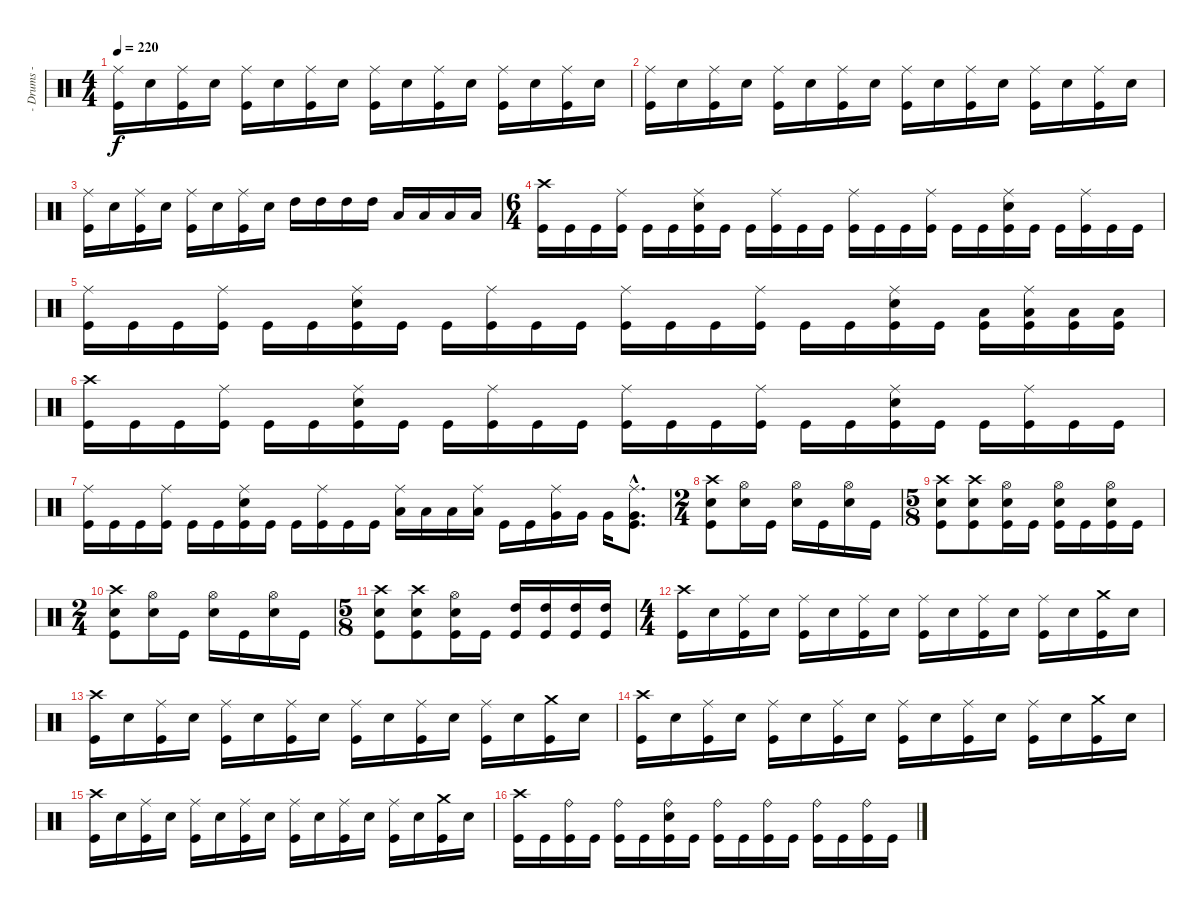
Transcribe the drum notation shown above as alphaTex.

\track ("- Drums -" "- Drums -") {instrument percussion}
\staff {score}
\articulation defaults
\ts (4 4)
\tempo 220
\clef neutral
\ks c
("Ride (middle)" "Kick (hit)").16{dy f} "Electric Snare (hit)".16 ("Ride (middle)" "Kick (hit)").16 "Electric Snare (hit)".16 ("Ride (middle)" "Kick (hit)").16 "Electric Snare (hit)".16 ("Ride (middle)" "Kick (hit)").16 "Electric Snare (hit)".16 ("Ride (middle)" "Kick (hit)").16 "Electric Snare (hit)".16 ("Ride (middle)" "Kick (hit)").16 "Electric Snare (hit)".16 ("Ride (middle)" "Kick (hit)").16 "Electric Snare (hit)".16 ("Ride (middle)" "Kick (hit)").16 "Electric Snare (hit)".16 |
("Ride (middle)" "Kick (hit)").16 "Electric Snare (hit)".16 ("Ride (middle)" "Kick (hit)").16 "Electric Snare (hit)".16 ("Ride (middle)" "Kick (hit)").16 "Electric Snare (hit)".16 ("Ride (middle)" "Kick (hit)").16 "Electric Snare (hit)".16 ("Ride (middle)" "Kick (hit)").16 "Electric Snare (hit)".16 ("Ride (middle)" "Kick (hit)").16 "Electric Snare (hit)".16 ("Ride (middle)" "Kick (hit)").16 "Electric Snare (hit)".16 ("Ride (middle)" "Kick (hit)").16 "Electric Snare (hit)".16 |
("Ride (middle)" "Kick (hit)").16 "Electric Snare (hit)".16 ("Ride (middle)" "Kick (hit)").16 "Electric Snare (hit)".16 ("Ride (middle)" "Kick (hit)").16 "Electric Snare (hit)".16 ("Ride (middle)" "Kick (hit)").16 "Electric Snare (hit)".16 "High Tom (hit)".16 "High Tom (hit)".16 "High Tom (hit)".16 "High Tom (hit)".16 "Low Tom (hit)".16 "Low Tom (hit)".16 "Low Tom (hit)".16 "Low Tom (hit)".16 |
\ts (6 4)
("Crash high (hit)" "Kick (hit)").16 "Kick (hit)".16 "Kick (hit)".16 ("Ride (middle)" "Kick (hit)").16 "Kick (hit)".16 "Kick (hit)".16 ("Ride (middle)" "Electric Snare (hit)" "Kick (hit)").16 "Kick (hit)".16 "Kick (hit)".16 ("Ride (middle)" "Kick (hit)").16 "Kick (hit)".16 "Kick (hit)".16 ("Ride (middle)" "Kick (hit)").16 "Kick (hit)".16 "Kick (hit)".16 ("Ride (middle)" "Kick (hit)").16 "Kick (hit)".16 "Kick (hit)".16 ("Ride (middle)" "Electric Snare (hit)" "Kick (hit)").16 "Kick (hit)".16 "Kick (hit)".16 ("Ride (middle)" "Kick (hit)").16 "Kick (hit)".16 "Kick (hit)".16 |
("Ride (middle)" "Kick (hit)").16 "Kick (hit)".16 "Kick (hit)".16 ("Ride (middle)" "Kick (hit)").16 "Kick (hit)".16 "Kick (hit)".16 ("Ride (middle)" "Electric Snare (hit)" "Kick (hit)").16 "Kick (hit)".16 "Kick (hit)".16 ("Ride (middle)" "Kick (hit)").16 "Kick (hit)".16 "Kick (hit)".16 ("Ride (middle)" "Kick (hit)").16 "Kick (hit)".16 "Kick (hit)".16 ("Ride (middle)" "Kick (hit)").16 "Kick (hit)".16 "Kick (hit)".16 ("Ride (middle)" "Electric Snare (hit)" "Kick (hit)").16 "Kick (hit)".16 ("Low Tom (hit)" "Kick (hit)").16 ("Ride (middle)" "Low Tom (hit)" "Kick (hit)").16 ("Low Tom (hit)" "Kick (hit)").16 ("Low Tom (hit)" "Kick (hit)").16 |
("Crash high (hit)" "Kick (hit)").16 "Kick (hit)".16 "Kick (hit)".16 ("Ride (middle)" "Kick (hit)").16 "Kick (hit)".16 "Kick (hit)".16 ("Ride (middle)" "Electric Snare (hit)" "Kick (hit)").16 "Kick (hit)".16 "Kick (hit)".16 ("Ride (middle)" "Kick (hit)").16 "Kick (hit)".16 "Kick (hit)".16 ("Ride (middle)" "Kick (hit)").16 "Kick (hit)".16 "Kick (hit)".16 ("Ride (middle)" "Kick (hit)").16 "Kick (hit)".16 "Kick (hit)".16 ("Ride (middle)" "Electric Snare (hit)" "Kick (hit)").16 "Kick (hit)".16 "Kick (hit)".16 ("Ride (middle)" "Kick (hit)").16 "Kick (hit)".16 "Kick (hit)".16 |
("Ride (middle)" "Kick (hit)").16 "Kick (hit)".16 "Kick (hit)".16 ("Ride (middle)" "Kick (hit)").16 "Kick (hit)".16 "Kick (hit)".16 ("Ride (middle)" "Electric Snare (hit)" "Kick (hit)").16 "Kick (hit)".16 "Kick (hit)".16 ("Ride (middle)" "Kick (hit)").16 "Kick (hit)".16 "Kick (hit)".16 ("Ride (middle)" "Low Tom (hit)").16 "Low Tom (hit)".16 "Low Tom (hit)".16 ("Ride (middle)" "Low Tom (hit)").16 "Kick (hit)".16 "Kick (hit)".16 ("Ride (middle)" "Very Low Tom (hit)").16 "Very Low Tom (hit)".16 "Very Low Tom (hit)".16 ("Ride (middle)"{hac} "Very Low Tom (hit)"{hac} "Kick (hit)"{hac}).8{d} |
\ts (2 4)
("Crash high (hit)" "Electric Snare (hit)" "Kick (hit)").8 ("Hi-Hat (open)" "Electric Snare (hit)").16 "Kick (hit)".16 ("Hi-Hat (open)" "Electric Snare (hit)").16 "Kick (hit)".16 ("Hi-Hat (open)" "Electric Snare (hit)").16 "Kick (hit)".16 |
\ts (5 8)
("Crash high (hit)" "Electric Snare (hit)" "Kick (hit)").8 ("Crash high (hit)" "Electric Snare (hit)" "Kick (hit)").8 ("Hi-Hat (open)" "Electric Snare (hit)" "Kick (hit)").16 "Kick (hit)".16 ("Hi-Hat (open)" "Electric Snare (hit)" "Kick (hit)").16 "Kick (hit)".16 ("Hi-Hat (open)" "Electric Snare (hit)" "Kick (hit)").16 "Kick (hit)".16 |
\ts (2 4)
("Crash high (hit)" "Electric Snare (hit)" "Kick (hit)").8 ("Hi-Hat (open)" "Electric Snare (hit)").16 "Kick (hit)".16 ("Hi-Hat (open)" "Electric Snare (hit)").16 "Kick (hit)".16 ("Hi-Hat (open)" "Electric Snare (hit)").16 "Kick (hit)".16 |
\ts (5 8)
("Crash high (hit)" "Electric Snare (hit)" "Kick (hit)").8 ("Crash high (hit)" "Electric Snare (hit)" "Kick (hit)").8 ("Hi-Hat (open)" "Electric Snare (hit)" "Kick (hit)").16 "Kick (hit)".16 ("High Tom (hit)" "Kick (hit)").16 ("High Tom (hit)" "Kick (hit)").16 ("High Tom (hit)" "Kick (hit)").16 ("High Tom (hit)" "Kick (hit)").16 |
\ts (4 4)
("Crash high (hit)" "Kick (hit)").16 "Electric Snare (hit)".16 ("Ride (middle)" "Kick (hit)").16 "Electric Snare (hit)".16 ("Ride (middle)" "Kick (hit)").16 "Electric Snare (hit)".16 ("Ride (middle)" "Kick (hit)").16 "Electric Snare (hit)".16 ("Ride (middle)" "Kick (hit)").16 "Electric Snare (hit)".16 ("Ride (middle)" "Kick (hit)").16 "Electric Snare (hit)".16 ("Ride (middle)" "Kick (hit)").16 "Electric Snare (hit)".16 ("Crash medium (hit)" "Kick (hit)").16 "Electric Snare (hit)".16 |
("Crash high (hit)" "Kick (hit)").16 "Electric Snare (hit)".16 ("Ride (middle)" "Kick (hit)").16 "Electric Snare (hit)".16 ("Ride (middle)" "Kick (hit)").16 "Electric Snare (hit)".16 ("Ride (middle)" "Kick (hit)").16 "Electric Snare (hit)".16 ("Ride (middle)" "Kick (hit)").16 "Electric Snare (hit)".16 ("Ride (middle)" "Kick (hit)").16 "Electric Snare (hit)".16 ("Ride (middle)" "Kick (hit)").16 "Electric Snare (hit)".16 ("Crash medium (hit)" "Kick (hit)").16 "Electric Snare (hit)".16 |
("Crash high (hit)" "Kick (hit)").16 "Electric Snare (hit)".16 ("Ride (middle)" "Kick (hit)").16 "Electric Snare (hit)".16 ("Ride (middle)" "Kick (hit)").16 "Electric Snare (hit)".16 ("Ride (middle)" "Kick (hit)").16 "Electric Snare (hit)".16 ("Ride (middle)" "Kick (hit)").16 "Electric Snare (hit)".16 ("Ride (middle)" "Kick (hit)").16 "Electric Snare (hit)".16 ("Ride (middle)" "Kick (hit)").16 "Electric Snare (hit)".16 ("Crash medium (hit)" "Kick (hit)").16 "Electric Snare (hit)".16 |
("Crash high (hit)" "Kick (hit)").16 "Electric Snare (hit)".16 ("Ride (middle)" "Kick (hit)").16 "Electric Snare (hit)".16 ("Ride (middle)" "Kick (hit)").16 "Electric Snare (hit)".16 ("Ride (middle)" "Kick (hit)").16 "Electric Snare (hit)".16 ("Ride (middle)" "Kick (hit)").16 "Electric Snare (hit)".16 ("Ride (middle)" "Kick (hit)").16 "Electric Snare (hit)".16 ("Ride (middle)" "Kick (hit)").16 "Electric Snare (hit)".16 ("Crash medium (hit)" "Kick (hit)").16 "Electric Snare (hit)".16 |
("Crash high (hit)" "Kick (hit)").16 "Kick (hit)".16 ("Ride (bell)" "Kick (hit)").16 "Kick (hit)".16 ("Ride (bell)" "Kick (hit)").16 "Kick (hit)".16 ("Ride (bell)" "Electric Snare (hit)" "Kick (hit)").16 "Kick (hit)".16 ("Ride (bell)" "Kick (hit)").16 "Kick (hit)".16 ("Ride (bell)" "Kick (hit)").16 "Kick (hit)".16 ("Ride (bell)" "Kick (hit)").16 "Kick (hit)".16 ("Ride (bell)" "Kick (hit)").16 "Kick (hit)".16
